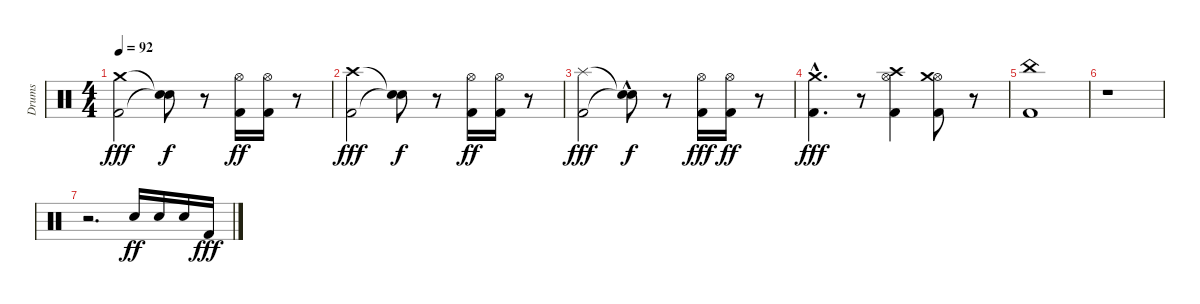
\track ("Drums" "Drums") {instrument percussion}
\staff {score}
\articulation defaults
\ts (4 4)
\tempo 92
\clef neutral
\ks c
("Kick (hit) 2" "Crash medium (hit)").2{dy fff} ("Snare (hit)"{t} "Snare (hit)"{t}).8{dy f} r.8 ("Kick (hit) 2" "Hi-Hat (open)").16{dy ff} ("Kick (hit) 2" "Hi-Hat (open)").16 r.8 |
("Kick (hit) 2" "Crash high (hit)").2{dy fff} ("Snare (hit)"{t} "Snare (hit)"{t}).8{dy f} r.8 ("Kick (hit) 2" "Hi-Hat (open)").16{dy ff} ("Kick (hit) 2" "Hi-Hat (open)").16 r.8 |
("Kick (hit) 2" "Splash (hit)").2{dy fff} ("Snare (hit)"{hac t} "Snare (hit)"{t}).8{dy f} r.8 ("Kick (hit) 2" "Hi-Hat (open)").16{dy fff} ("Kick (hit) 2" "Hi-Hat (open)").16{dy ff} r.8 |
("Kick (hit) 2"{hac} "Crash medium (hit)").4{d dy fff} r.8 ("Kick (hit) 2" "Hi-Hat (open)" "Crash high (hit)").4 ("Kick (hit) 2" "Hi-Hat (open)" "Crash medium (hit)").8 r.8 |
("Kick (hit) 2" "China (hit)").1 |
r.1 |
r.2{d} "Snare (hit) 2".16{dy ff} "Snare (hit) 2".16 "Snare (hit) 2".16 "Kick (hit) 2".16{dy fff}
